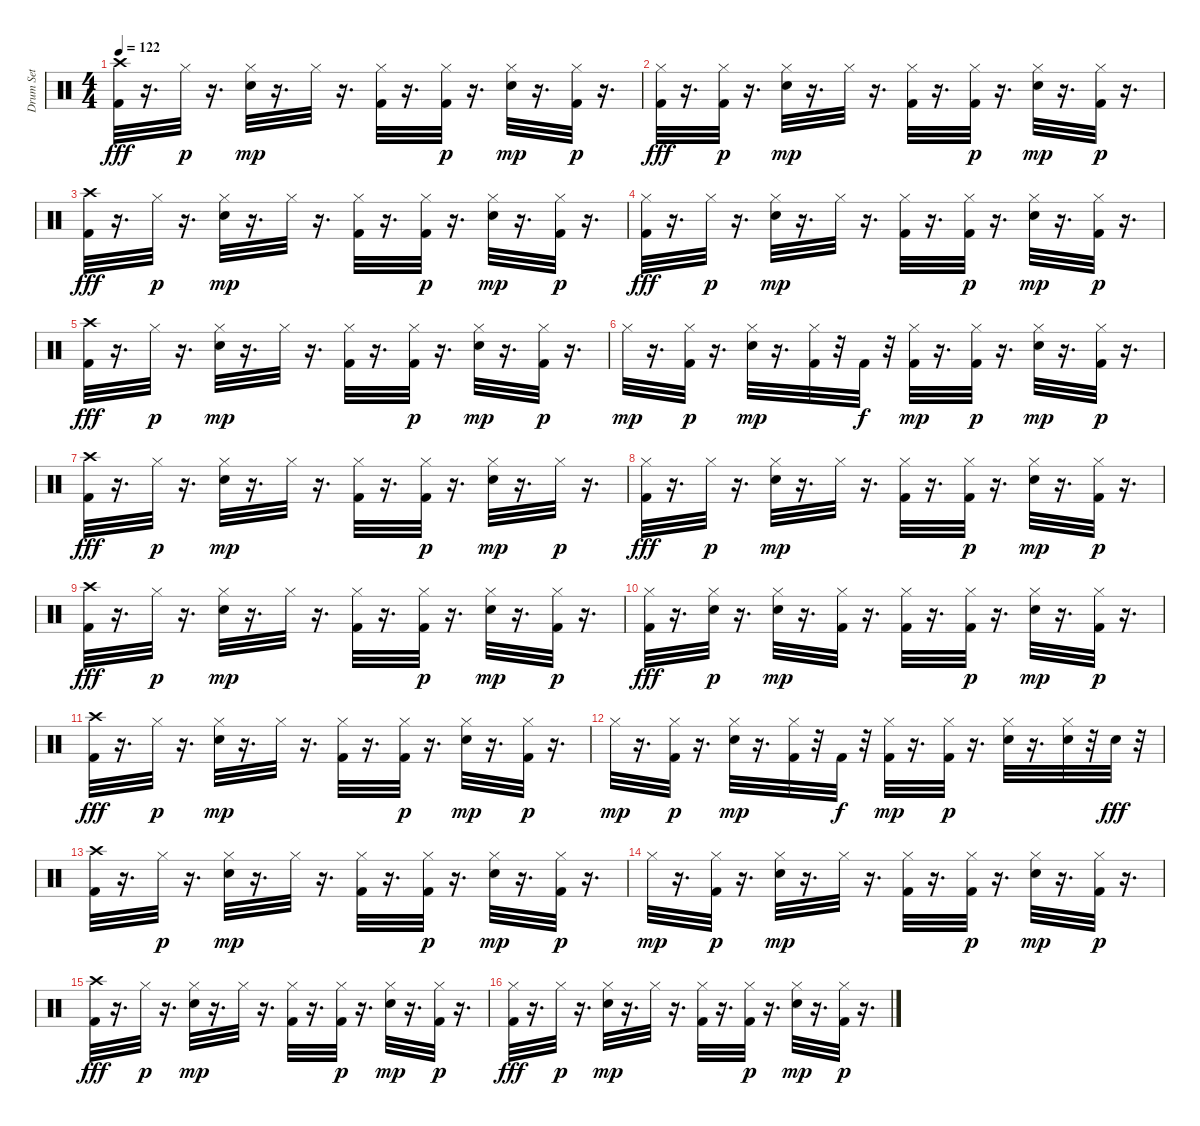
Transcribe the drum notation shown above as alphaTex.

\track ("Drum Set" "Drum Set") {instrument percussion}
\staff {score}
\articulation defaults
\ts (4 4)
\tempo 122
\clef neutral
\ks c
("Crash high (hit)" "Kick (hit) 2").32{dy fff} r.16{d} "Hi-Hat (closed)".32{dy p} r.16{d} ("Electric Snare (hit)" "Hi-Hat (closed)").32{dy mp} r.16{d} "Hi-Hat (closed)".32 r.16{d} ("Kick (hit) 2" "Hi-Hat (closed)").32 r.16{d} ("Kick (hit) 2" "Hi-Hat (closed)").32{dy p} r.16{d} ("Electric Snare (hit)" "Hi-Hat (closed)").32{dy mp} r.16{d} ("Kick (hit) 2" "Hi-Hat (closed)").32{dy p} r.16{d} |
("Hi-Hat (closed)" "Kick (hit) 2").32{dy fff} r.16{d} ("Kick (hit) 2" "Hi-Hat (closed)").32{dy p} r.16{d} ("Electric Snare (hit)" "Hi-Hat (closed)").32{dy mp} r.16{d} "Hi-Hat (closed)".32 r.16{d} ("Kick (hit) 2" "Hi-Hat (closed)").32 r.16{d} ("Kick (hit) 2" "Hi-Hat (closed)").32{dy p} r.16{d} ("Electric Snare (hit)" "Hi-Hat (closed)").32{dy mp} r.16{d} ("Kick (hit) 2" "Hi-Hat (closed)").32{dy p} r.16{d} |
("Crash high (hit)" "Kick (hit) 2").32{dy fff} r.16{d} "Hi-Hat (closed)".32{dy p} r.16{d} ("Electric Snare (hit)" "Hi-Hat (closed)").32{dy mp} r.16{d} "Hi-Hat (closed)".32 r.16{d} ("Kick (hit) 2" "Hi-Hat (closed)").32 r.16{d} ("Kick (hit) 2" "Hi-Hat (closed)").32{dy p} r.16{d} ("Electric Snare (hit)" "Hi-Hat (closed)").32{dy mp} r.16{d} ("Kick (hit) 2" "Hi-Hat (closed)").32{dy p} r.16{d} |
("Hi-Hat (closed)" "Kick (hit) 2").32{dy fff} r.16{d} "Hi-Hat (closed)".32{dy p} r.16{d} ("Electric Snare (hit)" "Hi-Hat (closed)").32{dy mp} r.16{d} "Hi-Hat (closed)".32 r.16{d} ("Kick (hit) 2" "Hi-Hat (closed)").32 r.16{d} ("Kick (hit) 2" "Hi-Hat (closed)").32{dy p} r.16{d} ("Electric Snare (hit)" "Hi-Hat (closed)").32{dy mp} r.16{d} ("Kick (hit) 2" "Hi-Hat (closed)").32{dy p} r.16{d} |
("Crash high (hit)" "Kick (hit) 2").32{dy fff} r.16{d} "Hi-Hat (closed)".32{dy p} r.16{d} ("Electric Snare (hit)" "Hi-Hat (closed)").32{dy mp} r.16{d} "Hi-Hat (closed)".32 r.16{d} ("Kick (hit) 2" "Hi-Hat (closed)").32 r.16{d} ("Kick (hit) 2" "Hi-Hat (closed)").32{dy p} r.16{d} ("Electric Snare (hit)" "Hi-Hat (closed)").32{dy mp} r.16{d} ("Kick (hit) 2" "Hi-Hat (closed)").32{dy p} r.16{d} |
"Hi-Hat (closed)".32{dy mp} r.16{d} ("Kick (hit) 2" "Hi-Hat (closed)").32{dy p} r.16{d} ("Electric Snare (hit)" "Hi-Hat (closed)").32{dy mp} r.16{d} ("Kick (hit) 2" "Hi-Hat (closed)").32 r.32 "Kick (hit) 2".32{dy f} r.32 ("Kick (hit) 2" "Hi-Hat (closed)").32{dy mp} r.16{d} ("Kick (hit) 2" "Hi-Hat (closed)").32{dy p} r.16{d} ("Electric Snare (hit)" "Hi-Hat (closed)").32{dy mp} r.16{d} ("Kick (hit) 2" "Hi-Hat (closed)").32{dy p} r.16{d} |
("Crash high (hit)" "Kick (hit) 2").32{dy fff} r.16{d} "Hi-Hat (closed)".32{dy p} r.16{d} ("Electric Snare (hit)" "Hi-Hat (closed)").32{dy mp} r.16{d} "Hi-Hat (closed)".32 r.16{d} ("Kick (hit) 2" "Hi-Hat (closed)").32 r.16{d} ("Kick (hit) 2" "Hi-Hat (closed)").32{dy p} r.16{d} ("Electric Snare (hit)" "Hi-Hat (closed)").32{dy mp} r.16{d} "Hi-Hat (closed)".32{dy p} r.16{d} |
("Hi-Hat (closed)" "Kick (hit) 2").32{dy fff} r.16{d} "Hi-Hat (closed)".32{dy p} r.16{d} ("Electric Snare (hit)" "Hi-Hat (closed)").32{dy mp} r.16{d} "Hi-Hat (closed)".32 r.16{d} ("Kick (hit) 2" "Hi-Hat (closed)").32 r.16{d} ("Kick (hit) 2" "Hi-Hat (closed)").32{dy p} r.16{d} ("Electric Snare (hit)" "Hi-Hat (closed)").32{dy mp} r.16{d} ("Kick (hit) 2" "Hi-Hat (closed)").32{dy p} r.16{d} |
("Crash high (hit)" "Kick (hit) 2").32{dy fff} r.16{d} "Hi-Hat (closed)".32{dy p} r.16{d} ("Electric Snare (hit)" "Hi-Hat (closed)").32{dy mp} r.16{d} "Hi-Hat (closed)".32 r.16{d} ("Kick (hit) 2" "Hi-Hat (closed)").32 r.16{d} ("Kick (hit) 2" "Hi-Hat (closed)").32{dy p} r.16{d} ("Electric Snare (hit)" "Hi-Hat (closed)").32{dy mp} r.16{d} ("Kick (hit) 2" "Hi-Hat (closed)").32{dy p} r.16{d} |
("Hi-Hat (closed)" "Kick (hit) 2").32{dy fff} r.16{d} ("Electric Snare (hit)" "Hi-Hat (closed)").32{dy p} r.16{d} ("Electric Snare (hit)" "Hi-Hat (closed)").32{dy mp} r.16{d} ("Kick (hit) 2" "Hi-Hat (closed)").32 r.16{d} ("Kick (hit) 2" "Hi-Hat (closed)").32 r.16{d} ("Kick (hit) 2" "Hi-Hat (closed)").32{dy p} r.16{d} ("Electric Snare (hit)" "Hi-Hat (closed)").32{dy mp} r.16{d} ("Kick (hit) 2" "Hi-Hat (closed)").32{dy p} r.16{d} |
("Crash high (hit)" "Kick (hit) 2").32{dy fff} r.16{d} "Hi-Hat (closed)".32{dy p} r.16{d} ("Electric Snare (hit)" "Hi-Hat (closed)").32{dy mp} r.16{d} "Hi-Hat (closed)".32 r.16{d} ("Kick (hit) 2" "Hi-Hat (closed)").32 r.16{d} ("Kick (hit) 2" "Hi-Hat (closed)").32{dy p} r.16{d} ("Electric Snare (hit)" "Hi-Hat (closed)").32{dy mp} r.16{d} ("Kick (hit) 2" "Hi-Hat (closed)").32{dy p} r.16{d} |
"Hi-Hat (closed)".32{dy mp} r.16{d} ("Kick (hit) 2" "Hi-Hat (closed)").32{dy p} r.16{d} ("Electric Snare (hit)" "Hi-Hat (closed)").32{dy mp} r.16{d} ("Kick (hit) 2" "Hi-Hat (closed)").32 r.32 "Kick (hit) 2".32{dy f} r.32 ("Kick (hit) 2" "Hi-Hat (closed)").32{dy mp} r.16{d} ("Kick (hit) 2" "Hi-Hat (closed)").32{dy p} r.16{d} ("Electric Snare (hit)" "Hi-Hat (closed)").32 r.16{d} ("Electric Snare (hit)" "Hi-Hat (closed)").32 r.32 "Electric Snare (hit)".32{dy fff} r.32 |
("Crash high (hit)" "Kick (hit) 2").32 r.16{d} "Hi-Hat (closed)".32{dy p} r.16{d} ("Electric Snare (hit)" "Hi-Hat (closed)").32{dy mp} r.16{d} "Hi-Hat (closed)".32 r.16{d} ("Kick (hit) 2" "Hi-Hat (closed)").32 r.16{d} ("Kick (hit) 2" "Hi-Hat (closed)").32{dy p} r.16{d} ("Electric Snare (hit)" "Hi-Hat (closed)").32{dy mp} r.16{d} ("Kick (hit) 2" "Hi-Hat (closed)").32{dy p} r.16{d} |
"Hi-Hat (closed)".32{dy mp} r.16{d} ("Kick (hit) 2" "Hi-Hat (closed)").32{dy p} r.16{d} ("Electric Snare (hit)" "Hi-Hat (closed)").32{dy mp} r.16{d} "Hi-Hat (closed)".32 r.16{d} ("Kick (hit) 2" "Hi-Hat (closed)").32 r.16{d} ("Kick (hit) 2" "Hi-Hat (closed)").32{dy p} r.16{d} ("Electric Snare (hit)" "Hi-Hat (closed)").32{dy mp} r.16{d} ("Kick (hit) 2" "Hi-Hat (closed)").32{dy p} r.16{d} |
("Crash high (hit)" "Kick (hit) 2").32{dy fff} r.16{d} "Hi-Hat (closed)".32{dy p} r.16{d} ("Electric Snare (hit)" "Hi-Hat (closed)").32{dy mp} r.16{d} "Hi-Hat (closed)".32 r.16{d} ("Kick (hit) 2" "Hi-Hat (closed)").32 r.16{d} ("Kick (hit) 2" "Hi-Hat (closed)").32{dy p} r.16{d} ("Electric Snare (hit)" "Hi-Hat (closed)").32{dy mp} r.16{d} ("Kick (hit) 2" "Hi-Hat (closed)").32{dy p} r.16{d} |
("Hi-Hat (closed)" "Kick (hit) 2").32{dy fff} r.16{d} "Hi-Hat (closed)".32{dy p} r.16{d} ("Electric Snare (hit)" "Hi-Hat (closed)").32{dy mp} r.16{d} "Hi-Hat (closed)".32 r.16{d} ("Kick (hit) 2" "Hi-Hat (closed)").32 r.16{d} ("Kick (hit) 2" "Hi-Hat (closed)").32{dy p} r.16{d} ("Electric Snare (hit)" "Hi-Hat (closed)").32{dy mp} r.16{d} ("Kick (hit) 2" "Hi-Hat (closed)").32{dy p} r.16{d}
